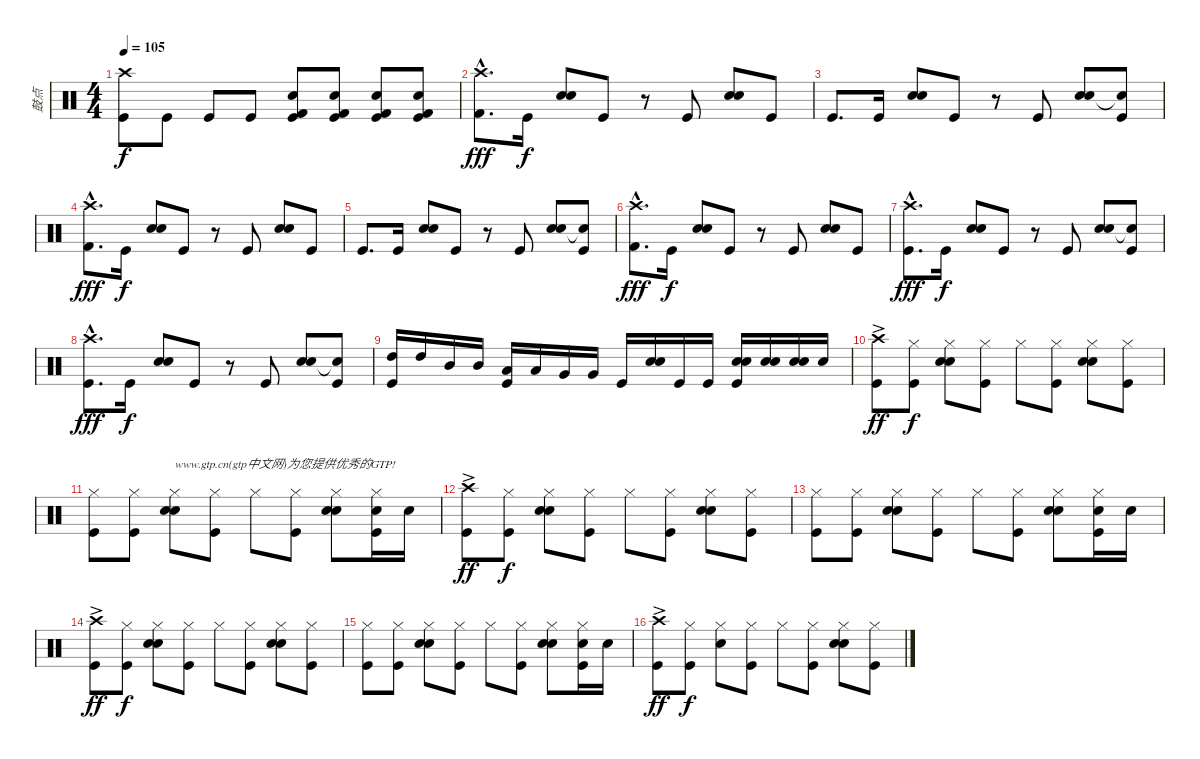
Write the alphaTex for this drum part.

\track ("鼓点" "鼓点") {instrument percussion}
\staff {score}
\articulation defaults
\ts (4 4)
\tempo 105
\clef neutral
\ks c
("Crash high (hit)" "Kick (hit)").8{dy f} "Kick (hit)".8 "Kick (hit)".8 "Kick (hit)".8 ("Electric Snare (hit)" "Kick (hit) 2" "Kick (hit)").8 ("Electric Snare (hit)" "Kick (hit) 2" "Kick (hit)").8 ("Electric Snare (hit)" "Kick (hit) 2" "Kick (hit)").8 ("Electric Snare (hit)" "Kick (hit) 2" "Kick (hit)").8 |
("Crash high (hit)"{hac} "Kick (hit) 2").8{d dy fff volume 9} "Kick (hit)".16{dy f} ("Electric Snare (hit)" "Snare (hit) 2").8 "Kick (hit)".8 r.8 "Kick (hit)".8 ("Electric Snare (hit)" "Snare (hit) 2").8 "Kick (hit)".8 |
"Kick (hit)".8{d} "Kick (hit)".16 ("Electric Snare (hit)" "Snare (hit) 2").8 "Kick (hit)".8 r.8 "Kick (hit)".8 ("Electric Snare (hit)" "Snare (hit) 2").8 ("Snare (hit)"{t} "Kick (hit)").8 |
("Crash high (hit)"{hac} "Kick (hit) 2").8{d dy fff} "Kick (hit)".16{dy f} ("Electric Snare (hit)" "Snare (hit) 2").8 "Kick (hit)".8 r.8 "Kick (hit)".8 ("Electric Snare (hit)" "Snare (hit) 2").8 "Kick (hit)".8 |
"Kick (hit)".8{d} "Kick (hit)".16 ("Electric Snare (hit)" "Snare (hit) 2").8 "Kick (hit)".8 r.8 "Kick (hit)".8 ("Electric Snare (hit)" "Snare (hit) 2").8 ("Snare (hit)"{t} "Kick (hit)").8 |
("Crash high (hit)"{hac} "Kick (hit) 2").8{d dy fff} "Kick (hit)".16{dy f} ("Electric Snare (hit)" "Snare (hit) 2").8 "Kick (hit)".8 r.8 "Kick (hit)".8 ("Electric Snare (hit)" "Snare (hit) 2").8 "Kick (hit)".8 |
("Crash high (hit)"{hac} "Kick (hit)").8{d dy fff} "Kick (hit)".16{dy f} ("Electric Snare (hit)" "Snare (hit) 2").8 "Kick (hit)".8 r.8 "Kick (hit)".8 ("Electric Snare (hit)" "Snare (hit) 2").8 ("Snare (hit)"{t} "Kick (hit)").8 |
("Crash high (hit)"{hac} "Kick (hit)").8{d dy fff} "Kick (hit)".16{dy f} ("Electric Snare (hit)" "Snare (hit) 2").8 "Kick (hit)".8 r.8 "Kick (hit)".8 ("Electric Snare (hit)" "Snare (hit) 2").8 ("Snare (hit)"{t} "Kick (hit)").8 |
("High Tom (hit)" "Kick (hit)").16{volume 10} "High Tom (hit)".16 "Mid Tom (hit)".16 "Mid Tom (hit)".16 ("Low Tom (hit)" "Kick (hit)").16 "Low Tom (hit)".16 "Very Low Tom (hit)".16 "Very Low Tom (hit)".16 "Kick (hit)".16 ("Electric Snare (hit)" "Snare (hit) 2").16 "Kick (hit)".16 "Kick (hit)".16 ("Snare (hit) 2" "Electric Snare (hit)" "Kick (hit)").16 ("Snare (hit) 2" "Electric Snare (hit)").16 ("Snare (hit) 2" "Electric Snare (hit)").16 "Electric Snare (hit)".16 |
("Crash high (hit)"{ac} "Kick (hit)").8{dy ff} ("Hi-Hat (closed)" "Kick (hit)").8{dy f} ("Hi-Hat (closed)" "Electric Snare (hit)" "Snare (hit) 2").8 ("Hi-Hat (closed)" "Kick (hit)").8 "Hi-Hat (closed)".8 ("Hi-Hat (closed)" "Kick (hit)").8 ("Hi-Hat (closed)" "Electric Snare (hit)" "Snare (hit) 2").8 ("Hi-Hat (closed)" "Kick (hit)").8 |
("Hi-Hat (closed)" "Kick (hit)").8 ("Hi-Hat (closed)" "Kick (hit)").8 ("Hi-Hat (closed)" "Electric Snare (hit)" "Snare (hit) 2").8{txt "www.gtp.cn(gtp中文网)为您提供优秀的GTP!"} ("Hi-Hat (closed)" "Kick (hit)").8 "Hi-Hat (closed)".8 ("Hi-Hat (closed)" "Kick (hit)").8 ("Hi-Hat (closed)" "Electric Snare (hit)" "Snare (hit) 2").8 ("Hi-Hat (closed)" "Electric Snare (hit)" "Kick (hit)").16 "Electric Snare (hit)".16 |
("Crash high (hit)"{ac} "Kick (hit)").8{dy ff} ("Hi-Hat (closed)" "Kick (hit)").8{dy f} ("Hi-Hat (closed)" "Electric Snare (hit)" "Snare (hit) 2").8 ("Hi-Hat (closed)" "Kick (hit)").8 "Hi-Hat (closed)".8 ("Hi-Hat (closed)" "Kick (hit)").8 ("Hi-Hat (closed)" "Electric Snare (hit)" "Snare (hit) 2").8 ("Hi-Hat (closed)" "Kick (hit)").8 |
("Hi-Hat (closed)" "Kick (hit)").8 ("Hi-Hat (closed)" "Kick (hit)").8 ("Hi-Hat (closed)" "Electric Snare (hit)" "Snare (hit) 2").8 ("Hi-Hat (closed)" "Kick (hit)").8 "Hi-Hat (closed)".8 ("Hi-Hat (closed)" "Kick (hit)").8 ("Hi-Hat (closed)" "Electric Snare (hit)" "Snare (hit) 2").8 ("Hi-Hat (closed)" "Electric Snare (hit)" "Kick (hit)").16 "Electric Snare (hit)".16 |
("Crash high (hit)"{ac} "Kick (hit)").8{dy ff} ("Hi-Hat (closed)" "Kick (hit)").8{dy f} ("Hi-Hat (closed)" "Electric Snare (hit)" "Snare (hit) 2").8 ("Hi-Hat (closed)" "Kick (hit)").8 "Hi-Hat (closed)".8 ("Hi-Hat (closed)" "Kick (hit)").8 ("Hi-Hat (closed)" "Electric Snare (hit)" "Snare (hit) 2").8 ("Hi-Hat (closed)" "Kick (hit)").8 |
("Hi-Hat (closed)" "Kick (hit)").8 ("Hi-Hat (closed)" "Kick (hit)").8 ("Hi-Hat (closed)" "Electric Snare (hit)" "Snare (hit) 2").8 ("Hi-Hat (closed)" "Kick (hit)").8 "Hi-Hat (closed)".8 ("Hi-Hat (closed)" "Kick (hit)").8 ("Hi-Hat (closed)" "Electric Snare (hit)" "Snare (hit) 2").8 ("Hi-Hat (closed)" "Electric Snare (hit)" "Kick (hit)").16 "Electric Snare (hit)".16 |
("Crash high (hit)"{ac} "Kick (hit)").8{dy ff} ("Hi-Hat (closed)" "Kick (hit)").8{dy f} ("Hi-Hat (closed)" "Electric Snare (hit)").8 ("Hi-Hat (closed)" "Kick (hit)").8 "Hi-Hat (closed)".8 ("Hi-Hat (closed)" "Kick (hit)").8 ("Hi-Hat (closed)" "Electric Snare (hit)" "Snare (hit) 2").8 ("Hi-Hat (closed)" "Kick (hit)").8
